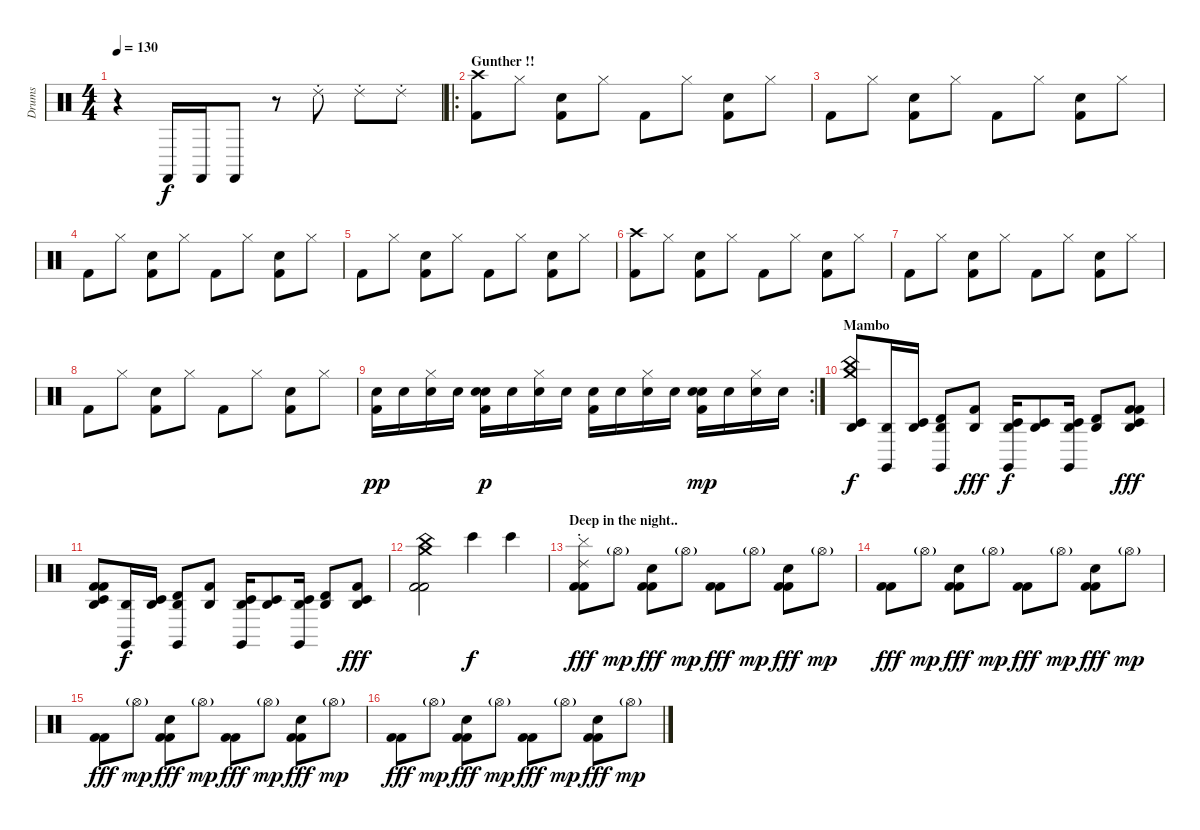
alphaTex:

\track ("Drums" "Drums") {instrument percussion}
\staff {score}
\articulation defaults
\ts (4 4)
\tempo 130
\clef neutral
\ks c
r.4{dy mf} "Castanets (hit)".16{dy f} "Castanets (hit)".16 "Castanets (hit)".8 r.8 "Ride (choke) 2".8 "Ride (choke) 2".8 "Ride (choke) 2".8 |
\ro
\section ("" "Gunther !!")
("Crash high (hit)" "Kick (hit) 2").8 "Hi-Hat (closed)".8 ("Hand Clap (hit)" "Kick (hit) 2").8 "Hi-Hat (closed)".8 "Kick (hit) 2".8 "Hi-Hat (closed)".8 ("Hand Clap (hit)" "Kick (hit) 2").8 "Hi-Hat (closed)".8 |
"Kick (hit) 2".8 "Hi-Hat (closed)".8 ("Hand Clap (hit)" "Kick (hit) 2").8 "Hi-Hat (closed)".8 "Kick (hit) 2".8 "Hi-Hat (closed)".8 ("Hand Clap (hit)" "Kick (hit) 2").8 "Hi-Hat (closed)".8 |
"Kick (hit) 2".8 "Hi-Hat (closed)".8 ("Hand Clap (hit)" "Kick (hit) 2").8 "Hi-Hat (closed)".8 "Kick (hit) 2".8 "Hi-Hat (closed)".8 ("Hand Clap (hit)" "Kick (hit) 2").8 "Hi-Hat (closed)".8 |
"Kick (hit) 2".8 "Hi-Hat (closed)".8 ("Hand Clap (hit)" "Kick (hit) 2").8 "Hi-Hat (closed)".8 "Kick (hit) 2".8 "Hi-Hat (closed)".8 ("Hand Clap (hit)" "Kick (hit) 2").8 "Hi-Hat (closed)".8 |
("Crash high (hit)" "Kick (hit) 2").8 "Hi-Hat (closed)".8 ("Hand Clap (hit)" "Kick (hit) 2").8 "Hi-Hat (closed)".8 "Kick (hit) 2".8 "Hi-Hat (closed)".8 ("Hand Clap (hit)" "Kick (hit) 2").8 "Hi-Hat (closed)".8 |
"Kick (hit) 2".8 "Hi-Hat (closed)".8 ("Hand Clap (hit)" "Kick (hit) 2").8 "Hi-Hat (closed)".8 "Kick (hit) 2".8 "Hi-Hat (closed)".8 ("Hand Clap (hit)" "Kick (hit) 2").8 "Hi-Hat (closed)".8 |
"Kick (hit) 2".8 "Hi-Hat (closed)".8 ("Hand Clap (hit)" "Kick (hit) 2").8 "Hi-Hat (closed)".8 "Kick (hit) 2".8 "Hi-Hat (closed)".8 ("Hand Clap (hit)" "Kick (hit) 2").8 "Hi-Hat (closed)".8 |
\rc 2
("Snare (hit) 2" "Kick (hit) 2").16{dy pp} "Snare (hit) 2".16 ("Snare (hit) 2" "Hi-Hat (closed)").16 "Snare (hit) 2".16 ("Snare (hit) 2" "Hand Clap (hit)" "Kick (hit) 2").16{dy p} "Snare (hit) 2".16 ("Snare (hit) 2" "Hi-Hat (closed)").16 "Snare (hit) 2".16 ("Snare (hit) 2" "Kick (hit) 2").16 "Snare (hit) 2".16 ("Snare (hit) 2" "Hi-Hat (closed)").16 "Snare (hit) 2".16 ("Snare (hit) 2" "Hand Clap (hit)" "Kick (hit) 2").16{dy mp} "Snare (hit) 2".16 ("Snare (hit) 2" "Hi-Hat (closed)").16 "Snare (hit) 2".16 |
\section ("" "Mambo")
("China (hit)" "Agogo high (hit)" "Timbale low (hit)" "Crash medium (hit)").8{dy f} ("Agogo high (hit)" "Claves (hit)").16 ("Agogo high (hit)" "Timbale low (hit)").16 ("Agogo high (hit)" "Timbale high (hit)" "Claves (hit)").8 ("Agogo high (hit)" "Kick (hit) 2").8{dy fff} ("Agogo high (hit)" "Timbale low (hit)" "Claves (hit)").16{dy f} ("Agogo high (hit)" "Timbale low (hit)").8 ("Agogo high (hit)" "Timbale low (hit)" "Claves (hit)").16 ("Agogo high (hit)" "Timbale high (hit)").8 ("Agogo high (hit)" "Timbale low (hit)" "Kick (hit) 2" "Kick (hit) 2").8{dy fff} |
("Agogo high (hit)" "Timbale low (hit)" "Kick (hit) 2" "Kick (hit) 2").8 ("Agogo high (hit)" "Claves (hit)").16{dy f} ("Agogo high (hit)" "Timbale low (hit)").16 ("Agogo high (hit)" "Timbale high (hit)" "Claves (hit)").8 ("Agogo high (hit)" "Kick (hit) 2").8 ("Agogo high (hit)" "Timbale low (hit)" "Claves (hit)").16 ("Agogo high (hit)" "Timbale low (hit)").8 ("Agogo high (hit)" "Timbale low (hit)" "Claves (hit)").16 ("Agogo high (hit)" "Timbale high (hit)").8 ("Agogo high (hit)" "Timbale low (hit)" "Kick (hit) 2").8{dy fff} |
("China (hit)" "Crash medium (hit)" "Kick (hit) 2" "Kick (hit) 2").2 "Bongo High (hit)".4{dy f} "Bongo High (hit)".4 |
\section ("" "Deep in the night..")
("Ride (choke) 2" "Cymbal (hit)" "Kick (hit) 2" "Kick (hit) 2").8{dy fff} "Hi-Hat (open)"{g}.8{dy mp} ("Hand Clap (hit)" "Kick (hit) 2" "Kick (hit) 2").8{dy fff} "Hi-Hat (open)"{g}.8{dy mp} ("Kick (hit) 2" "Kick (hit) 2").8{dy fff} "Hi-Hat (open)"{g}.8{dy mp} ("Hand Clap (hit)" "Kick (hit) 2" "Kick (hit) 2").8{dy fff} "Hi-Hat (open)"{g}.8{dy mp} |
("Kick (hit) 2" "Kick (hit) 2").8{dy fff} "Hi-Hat (open)"{g}.8{dy mp} ("Hand Clap (hit)" "Kick (hit) 2" "Kick (hit) 2").8{dy fff} "Hi-Hat (open)"{g}.8{dy mp} ("Kick (hit) 2" "Kick (hit) 2").8{dy fff} "Hi-Hat (open)"{g}.8{dy mp} ("Hand Clap (hit)" "Kick (hit) 2" "Kick (hit) 2").8{dy fff} "Hi-Hat (open)"{g}.8{dy mp} |
("Kick (hit) 2" "Kick (hit) 2").8{dy fff} "Hi-Hat (open)"{g}.8{dy mp} ("Hand Clap (hit)" "Kick (hit) 2" "Kick (hit) 2").8{dy fff} "Hi-Hat (open)"{g}.8{dy mp} ("Kick (hit) 2" "Kick (hit) 2").8{dy fff} "Hi-Hat (open)"{g}.8{dy mp} ("Hand Clap (hit)" "Kick (hit) 2" "Kick (hit) 2").8{dy fff} "Hi-Hat (open)"{g}.8{dy mp} |
("Kick (hit) 2" "Kick (hit) 2").8{dy fff} "Hi-Hat (open)"{g}.8{dy mp} ("Hand Clap (hit)" "Kick (hit) 2" "Kick (hit) 2").8{dy fff} "Hi-Hat (open)"{g}.8{dy mp} ("Kick (hit) 2" "Kick (hit) 2").8{dy fff} "Hi-Hat (open)"{g}.8{dy mp} ("Hand Clap (hit)" "Kick (hit) 2" "Kick (hit) 2").8{dy fff} "Hi-Hat (open)"{g}.8{dy mp}
